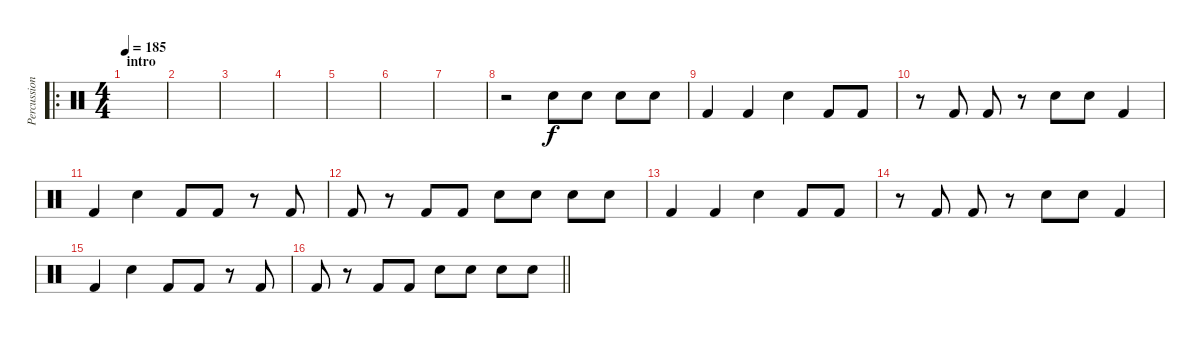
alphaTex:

\track ("Percussion" "Percussion") {instrument percussion}
\staff {score}
\articulation defaults
\ro
\ts (4 4)
\section ("" "intro")
\tempo 185
\clef neutral
\ks c
|
|
|
|
|
|
|
r.2 "Snare (hit) 2".8 "Snare (hit) 2".8 "Snare (hit) 2".8 "Snare (hit) 2".8 |
"Kick (hit) 2".4 "Kick (hit) 2".4 "Snare (hit) 2".4 "Kick (hit) 2".8 "Kick (hit) 2".8 |
r.8 "Kick (hit) 2".8 "Kick (hit) 2".8 r.8 "Snare (hit) 2".8 "Snare (hit) 2".8 "Kick (hit) 2".4 |
"Kick (hit) 2".4 "Snare (hit) 2".4 "Kick (hit) 2".8 "Kick (hit) 2".8 r.8 "Kick (hit) 2".8 |
"Kick (hit) 2".8 r.8 "Kick (hit) 2".8 "Kick (hit) 2".8 "Snare (hit) 2".8 "Snare (hit) 2".8 "Snare (hit) 2".8 "Snare (hit) 2".8 |
"Kick (hit) 2".4 "Kick (hit) 2".4 "Snare (hit) 2".4 "Kick (hit) 2".8 "Kick (hit) 2".8 |
r.8 "Kick (hit) 2".8 "Kick (hit) 2".8 r.8 "Snare (hit) 2".8 "Snare (hit) 2".8 "Kick (hit) 2".4 |
"Kick (hit) 2".4 "Snare (hit) 2".4 "Kick (hit) 2".8 "Kick (hit) 2".8 r.8 "Kick (hit) 2".8 |
\barLineRight lightlight "Kick (hit) 2".8
r.8 "Kick (hit) 2".8 "Kick (hit) 2".8 "Snare (hit) 2".8 "Snare (hit) 2".8 "Snare (hit) 2".8 "Snare (hit) 2".8
